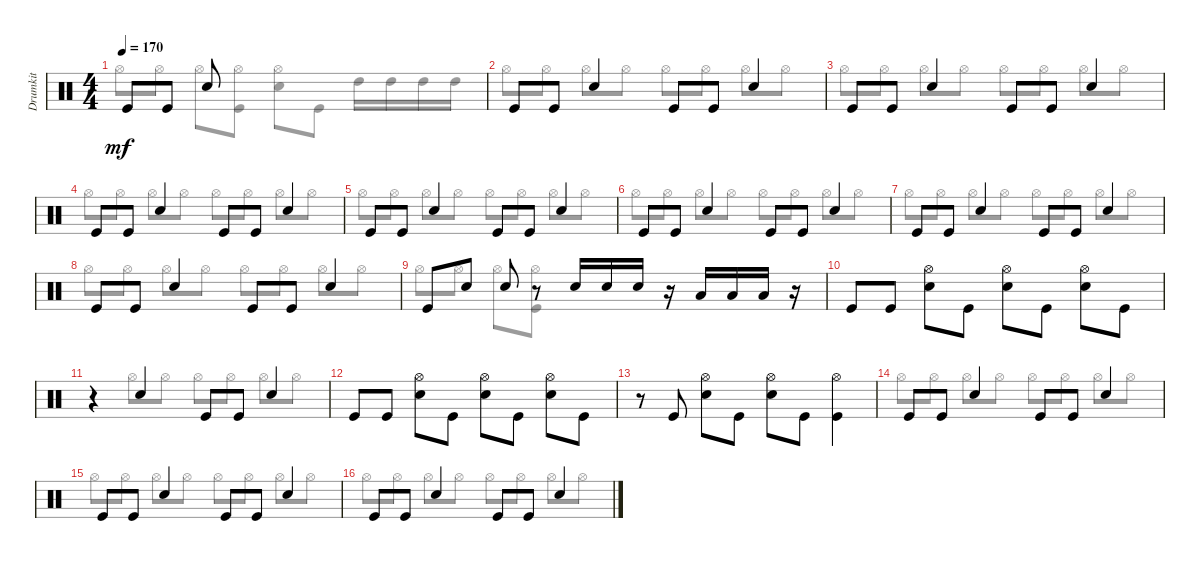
\track ("Drumkit" "Drumkit") {instrument percussion}
\staff {score}
\articulation defaults
\voice
\ts (4 4)
\tempo 170
\clef neutral
\ks c "Kick (hit)".8{dy mf} "Kick (hit)".8 "Snare (hit) 2".8
|
"Kick (hit)".8 "Kick (hit)".8 "Snare (hit) 2".4 "Kick (hit)".8 "Kick (hit)".8 "Snare (hit) 2".4 |
"Kick (hit)".8 "Kick (hit)".8 "Snare (hit) 2".4 "Kick (hit)".8 "Kick (hit)".8 "Snare (hit) 2".4 |
"Kick (hit)".8 "Kick (hit)".8 "Snare (hit) 2".4 "Kick (hit)".8 "Kick (hit)".8 "Snare (hit) 2".4 |
"Kick (hit)".8 "Kick (hit)".8 "Snare (hit) 2".4 "Kick (hit)".8 "Kick (hit)".8 "Snare (hit) 2".4 |
"Kick (hit)".8 "Kick (hit)".8 "Snare (hit) 2".4 "Kick (hit)".8 "Kick (hit)".8 "Snare (hit) 2".4 |
"Kick (hit)".8 "Kick (hit)".8 "Snare (hit) 2".4 "Kick (hit)".8 "Kick (hit)".8 "Snare (hit) 2".4 |
"Kick (hit)".8 "Kick (hit)".8 "Snare (hit) 2".4 "Kick (hit)".8 "Kick (hit)".8 "Snare (hit) 2".4 |
"Kick (hit)".8 "Snare (hit) 2".8 "Snare (hit) 2".8 r.8 "Snare (hit) 2".16 "Snare (hit) 2".16 "Snare (hit) 2".16 r.16 "Low Tom (hit)".16 "Low Tom (hit)".16 "Low Tom (hit)".16 r.16 |
"Kick (hit)".8 "Kick (hit)".8 ("Snare (hit) 2" "Hi-Hat (open)").8 "Kick (hit)".8 ("Snare (hit) 2" "Hi-Hat (open)").8 "Kick (hit)".8 ("Snare (hit) 2" "Hi-Hat (open)").8 "Kick (hit)".8 |
r.4 "Snare (hit) 2".4 "Kick (hit)".8 "Kick (hit)".8 "Snare (hit) 2".4 |
"Kick (hit)".8 "Kick (hit)".8 ("Snare (hit) 2" "Hi-Hat (open)").8 "Kick (hit)".8 ("Snare (hit) 2" "Hi-Hat (open)").8 "Kick (hit)".8 ("Snare (hit) 2" "Hi-Hat (open)").8 "Kick (hit)".8 |
r.8 "Kick (hit)".8 ("Snare (hit) 2" "Hi-Hat (open)").8 "Kick (hit)".8 ("Snare (hit) 2" "Hi-Hat (open)").8 "Kick (hit)".8 ("Kick (hit)" "Hi-Hat (open)").4 |
"Kick (hit)".8 "Kick (hit)".8 "Snare (hit) 2".4 "Kick (hit)".8 "Kick (hit)".8 "Snare (hit) 2".4 |
"Kick (hit)".8 "Kick (hit)".8 "Snare (hit) 2".4 "Kick (hit)".8 "Kick (hit)".8 "Snare (hit) 2".4 |
"Kick (hit)".8 "Kick (hit)".8 "Snare (hit) 2".4 "Kick (hit)".8 "Kick (hit)".8 "Snare (hit) 2".4
\voice
\clef neutral
\ottava regular
\simile none
\ks c "Hi-Hat (open)".8{dy mf} "Hi-Hat (open)".8 "Hi-Hat (open)".8
("Hi-Hat (open)" "Kick (hit)").8 ("Hi-Hat (open)" "Snare (hit) 2").8 "Kick (hit)".8 "High Tom (hit)".16 "High Tom (hit)".16 "High Tom (hit)".16 "High Tom (hit)".16 |
"Hi-Hat (open)".8 "Hi-Hat (open)".8 "Hi-Hat (open)".8 "Hi-Hat (open)".8 "Hi-Hat (open)".8 "Hi-Hat (open)".8 "Hi-Hat (open)".8 "Hi-Hat (open)".8 |
"Hi-Hat (open)".8 "Hi-Hat (open)".8 "Hi-Hat (open)".8 "Hi-Hat (open)".8 "Hi-Hat (open)".8 "Hi-Hat (open)".8 "Hi-Hat (open)".8 "Hi-Hat (open)".8 |
"Hi-Hat (open)".8 "Hi-Hat (open)".8 "Hi-Hat (open)".8 "Hi-Hat (open)".8 "Hi-Hat (open)".8 "Hi-Hat (open)".8 "Hi-Hat (open)".8 "Hi-Hat (open)".8 |
"Hi-Hat (open)".8 "Hi-Hat (open)".8 "Hi-Hat (open)".8 "Hi-Hat (open)".8 "Hi-Hat (open)".8 "Hi-Hat (open)".8 "Hi-Hat (open)".8 "Hi-Hat (open)".8 |
"Hi-Hat (open)".8 "Hi-Hat (open)".8 "Hi-Hat (open)".8 "Hi-Hat (open)".8 "Hi-Hat (open)".8 "Hi-Hat (open)".8 "Hi-Hat (open)".8 "Hi-Hat (open)".8 |
"Hi-Hat (open)".8 "Hi-Hat (open)".8 "Hi-Hat (open)".8 "Hi-Hat (open)".8 "Hi-Hat (open)".8 "Hi-Hat (open)".8 "Hi-Hat (open)".8 "Hi-Hat (open)".8 |
"Hi-Hat (open)".8 "Hi-Hat (open)".8 "Hi-Hat (open)".8 "Hi-Hat (open)".8 "Hi-Hat (open)".8 "Hi-Hat (open)".8 "Hi-Hat (open)".8 "Hi-Hat (open)".8 |
"Hi-Hat (open)".8 "Hi-Hat (open)".8 "Hi-Hat (open)".8 ("Hi-Hat (open)" "Kick (hit)").8 |
|
r.4 "Hi-Hat (open)".8 "Hi-Hat (open)".8 "Hi-Hat (open)".8 "Hi-Hat (open)".8 "Hi-Hat (open)".8 "Hi-Hat (open)".8 |
|
|
"Hi-Hat (open)".8 "Hi-Hat (open)".8 "Hi-Hat (open)".8 "Hi-Hat (open)".8 "Hi-Hat (open)".8 "Hi-Hat (open)".8 "Hi-Hat (open)".8 "Hi-Hat (open)".8 |
"Hi-Hat (open)".8 "Hi-Hat (open)".8 "Hi-Hat (open)".8 "Hi-Hat (open)".8 "Hi-Hat (open)".8 "Hi-Hat (open)".8 "Hi-Hat (open)".8 "Hi-Hat (open)".8 |
"Hi-Hat (open)".8 "Hi-Hat (open)".8 "Hi-Hat (open)".8 "Hi-Hat (open)".8 "Hi-Hat (open)".8 "Hi-Hat (open)".8 "Hi-Hat (open)".8 "Hi-Hat (open)".8
